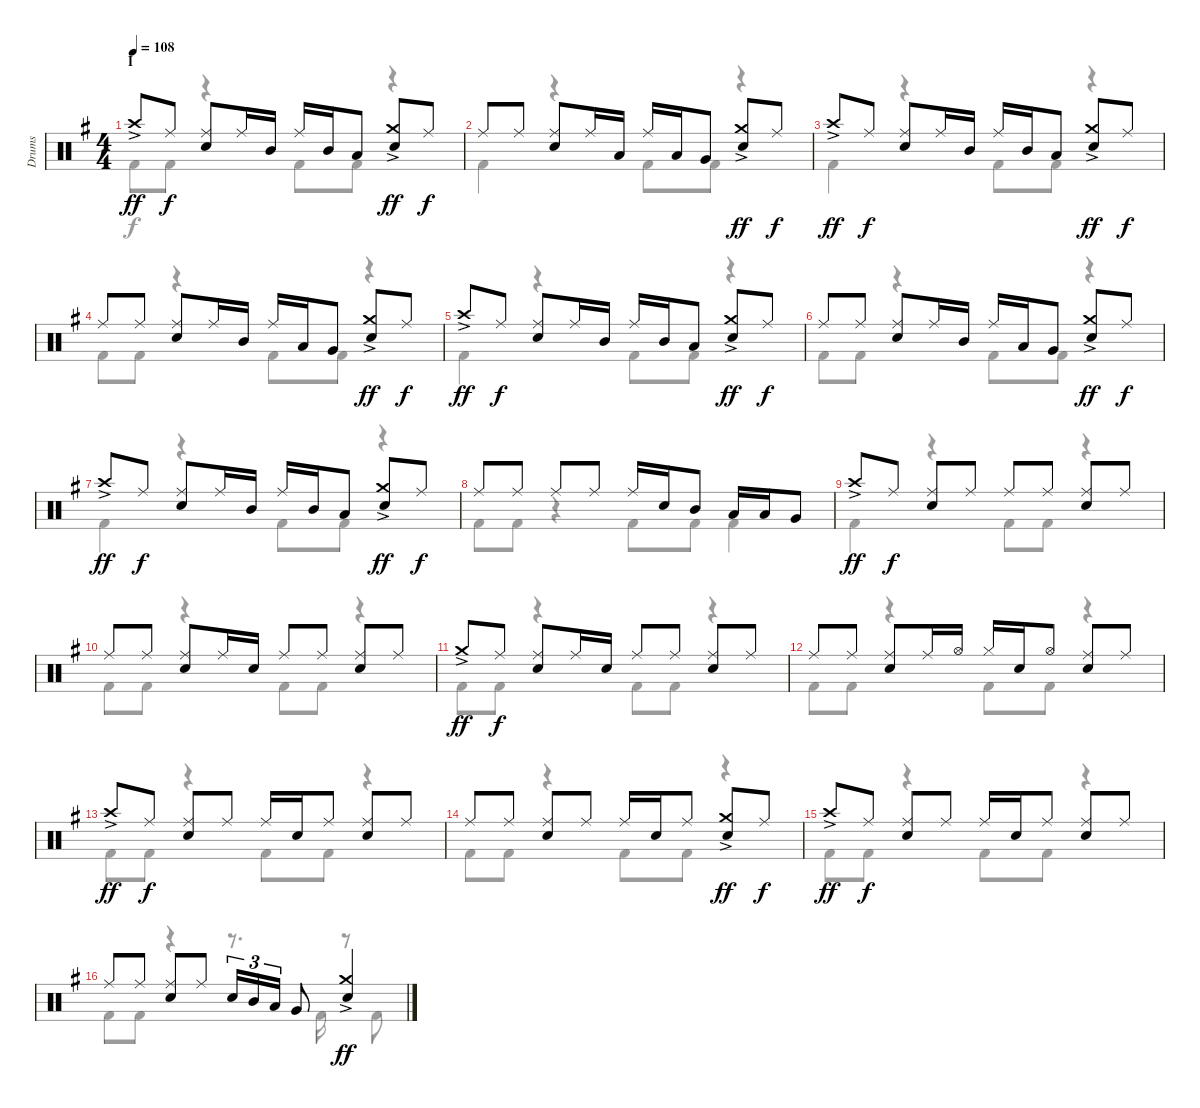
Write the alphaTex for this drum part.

\track ("Drums" "Drums") {instrument percussion}
\staff {score}
\articulation defaults
\voice
\ts (4 4)
\section ("" "I")
\tempo 108
\clef neutral
\ks g "Crash high (hit)"{ac}.8{dy ff} "Ride (middle)".8{dy f}
("Ride (middle)" "Snare (hit) 2").8 "Ride (middle)".16 "Mid Tom (hit)".16 "Ride (middle)".16 "Mid Tom (hit)".16 "Low Tom (hit)".8 ("Crash medium (hit)"{ac} "Snare (hit) 2").8{dy ff} "Ride (middle)".8{dy f} |
"Ride (middle)".8 "Ride (middle)".8 ("Ride (middle)" "Snare (hit) 2").8 "Ride (middle)".16 "Low Tom (hit)".16 "Ride (middle)".16 "Low Tom (hit)".16 "Very Low Tom (hit)".8 ("Crash medium (hit)"{ac} "Snare (hit) 2").8{dy ff} "Ride (middle)".8{dy f} |
"Crash high (hit)"{ac}.8{dy ff} "Ride (middle)".8{dy f} ("Ride (middle)" "Snare (hit) 2").8 "Ride (middle)".16 "Mid Tom (hit)".16 "Ride (middle)".16 "Mid Tom (hit)".16 "Low Tom (hit)".8 ("Crash medium (hit)"{ac} "Snare (hit) 2").8{dy ff} "Ride (middle)".8{dy f} |
"Ride (middle)".8 "Ride (middle)".8 ("Ride (middle)" "Snare (hit) 2").8 "Ride (middle)".16 "Mid Tom (hit)".16 "Ride (middle)".16 "Low Tom (hit)".16 "Very Low Tom (hit)".8 ("Crash medium (hit)"{ac} "Snare (hit) 2").8{dy ff} "Ride (middle)".8{dy f} |
"Crash high (hit)"{ac}.8{dy ff} "Ride (middle)".8{dy f} ("Ride (middle)" "Snare (hit) 2").8 "Ride (middle)".16 "Mid Tom (hit)".16 "Ride (middle)".16 "Mid Tom (hit)".16 "Low Tom (hit)".8 ("Crash medium (hit)"{ac} "Snare (hit) 2").8{dy ff} "Ride (middle)".8{dy f} |
"Ride (middle)".8 "Ride (middle)".8 ("Ride (middle)" "Snare (hit) 2").8 "Ride (middle)".16 "Mid Tom (hit)".16 "Ride (middle)".16 "Low Tom (hit)".16 "Very Low Tom (hit)".8 ("Crash medium (hit)"{ac} "Snare (hit) 2").8{dy ff} "Ride (middle)".8{dy f} |
"Crash high (hit)"{ac}.8{dy ff} "Ride (middle)".8{dy f} ("Ride (middle)" "Snare (hit) 2").8 "Ride (middle)".16 "Mid Tom (hit)".16 "Ride (middle)".16 "Mid Tom (hit)".16 "Low Tom (hit)".8 ("Crash medium (hit)"{ac} "Snare (hit) 2").8{dy ff} "Ride (middle)".8{dy f} |
"Ride (middle)".8 "Ride (middle)".8 "Ride (middle)".8 "Ride (middle)".8 "Ride (middle)".16 "Snare (hit) 2".16 "Mid Tom (hit)".8 "Low Tom (hit)".16 "Low Tom (hit)".16 "Very Low Tom (hit)".8 |
"Crash high (hit)"{ac}.8{dy ff} "Ride (middle)".8{dy f} ("Ride (middle)" "Snare (hit) 2").8 "Ride (middle)".8 "Ride (middle)".8 "Ride (middle)".8 ("Ride (middle)" "Snare (hit) 2").8 "Ride (middle)".8 |
"Ride (middle)".8 "Ride (middle)".8 ("Ride (middle)" "Snare (hit) 2").8 "Ride (middle)".16 "Snare (hit) 2".16 "Ride (middle)".8 "Ride (middle)".8 ("Ride (middle)" "Snare (hit) 2").8 "Ride (middle)".8 |
"Crash medium (hit)"{ac}.8{dy ff} "Ride (middle)".8{dy f} ("Ride (middle)" "Snare (hit) 2").8 "Ride (middle)".16 "Snare (hit) 2".16 "Ride (middle)".8 "Ride (middle)".8 ("Ride (middle)" "Snare (hit) 2").8 "Ride (middle)".8 |
"Ride (middle)".8 "Ride (middle)".8 ("Ride (middle)" "Snare (hit) 2").8 "Ride (middle)".16 "Hi-Hat (open)".16 "Hi-Hat (closed)".16 "Snare (hit) 2".16 "Hi-Hat (open)".8 ("Ride (middle)" "Snare (hit) 2").8 "Ride (middle)".8 |
"Crash high (hit)"{ac}.8{dy ff} "Ride (middle)".8{dy f} ("Ride (middle)" "Snare (hit) 2").8 "Ride (middle)".8 "Ride (middle)".16 "Snare (hit) 2".16 "Ride (middle)".8 ("Ride (middle)" "Snare (hit) 2").8 "Ride (middle)".8 |
"Ride (middle)".8 "Ride (middle)".8 ("Ride (middle)" "Snare (hit) 2").8 "Ride (middle)".8 "Ride (middle)".16 "Snare (hit) 2".16 "Ride (middle)".8 ("Crash medium (hit)"{ac} "Snare (hit) 2").8{dy ff} "Ride (middle)".8{dy f} |
"Crash high (hit)"{ac}.8{dy ff} "Ride (middle)".8{dy f} ("Ride (middle)" "Snare (hit) 2").8 "Ride (middle)".8 "Ride (middle)".16 "Snare (hit) 2".16 "Ride (middle)".8 ("Ride (middle)" "Snare (hit) 2").8 "Ride (middle)".8 |
"Ride (middle)".8 "Ride (middle)".8 ("Ride (middle)" "Snare (hit) 2").8 "Ride (middle)".8 "Snare (hit) 2".16{tu (3 2)} "Mid Tom (hit)".16{tu (3 2)} "Low Tom (hit)".16{tu (3 2)} "Very Low Tom (hit)".8 ("Crash medium (hit)"{ac} "Snare (hit) 2").4{dy ff}
\voice
\clef neutral
\ottava regular
\simile none
\ks g "Kick (hit) 2".8{dy f} "Kick (hit) 2".8
r.4 "Kick (hit) 2".8 "Kick (hit) 2".8 r.4 |
"Kick (hit) 2".4 r.4 "Kick (hit) 2".8 "Kick (hit) 2".8 r.4 |
"Kick (hit) 2".4 r.4 "Kick (hit) 2".8 "Kick (hit) 2".8 r.4 |
"Kick (hit) 2".8 "Kick (hit) 2".8 r.4 "Kick (hit) 2".8 "Kick (hit) 2".8 r.4 |
"Kick (hit) 2".4 r.4 "Kick (hit) 2".8 "Kick (hit) 2".8 r.4 |
"Kick (hit) 2".8 "Kick (hit) 2".8 r.4 "Kick (hit) 2".8 "Kick (hit) 2".8 r.4 |
"Kick (hit) 2".4 r.4 "Kick (hit) 2".8 "Kick (hit) 2".8 r.4 |
"Kick (hit) 2".8 "Kick (hit) 2".8 r.4 "Kick (hit) 2".8 "Kick (hit) 2".8 "Kick (hit) 2".4 |
"Kick (hit) 2".4 r.4 "Kick (hit) 2".8 "Kick (hit) 2".8 r.4 |
"Kick (hit) 2".8 "Kick (hit) 2".8 r.4 "Kick (hit) 2".8 "Kick (hit) 2".8 r.4 |
"Kick (hit) 2".8 "Kick (hit) 2".8 r.4 "Kick (hit) 2".8 "Kick (hit) 2".8 r.4 |
"Kick (hit) 2".8 "Kick (hit) 2".8 r.4 "Kick (hit) 2".8 "Kick (hit) 2".8 r.4 |
"Kick (hit) 2".8 "Kick (hit) 2".8 r.4 "Kick (hit) 2".8 "Kick (hit) 2".8 r.4 |
"Kick (hit) 2".8 "Kick (hit) 2".8 r.4 "Kick (hit) 2".8 "Kick (hit) 2".8 r.4 |
"Kick (hit) 2".8 "Kick (hit) 2".8 r.4 "Kick (hit) 2".8 "Kick (hit) 2".8 r.4 |
"Kick (hit) 2".8 "Kick (hit) 2".8 r.4 r.8{d} "Kick (hit) 2".16 r.8 "Kick (hit) 2".8
